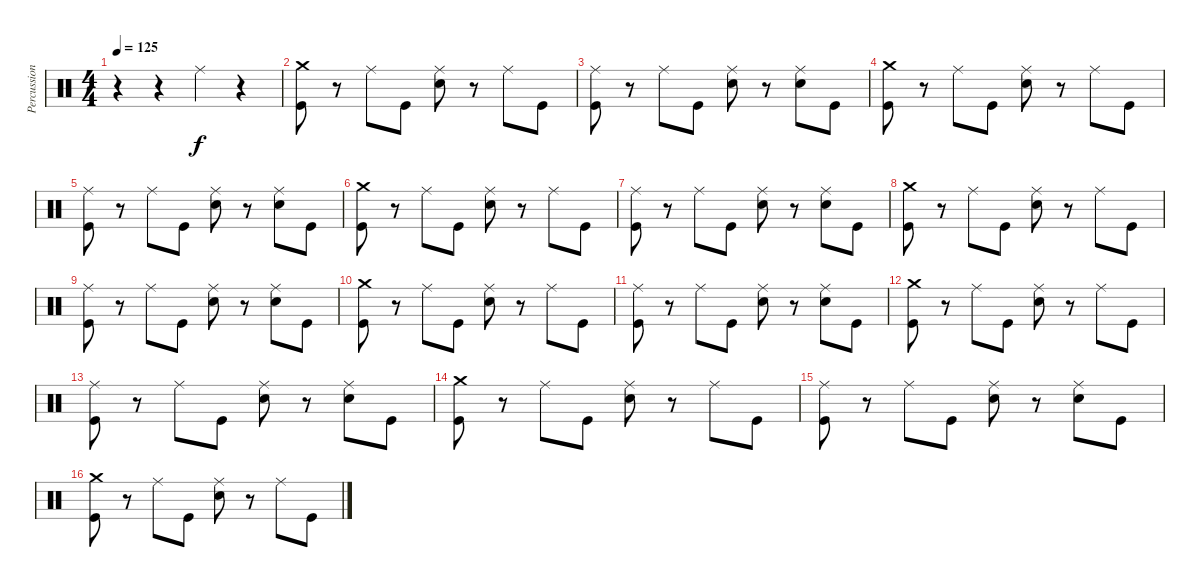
\track ("Percussion" "Percussion") {instrument percussion}
\staff {score}
\articulation defaults
\ts (4 4)
\tempo 125
\clef neutral
\ks c
r.4{dy f} r.4 "Ride (middle)".4 r.4 |
("Crash medium (hit)" "Kick (hit)").8 r.8 "Ride (middle)".8 "Kick (hit)".8 ("Ride (middle)" "Snare (hit) 2").8 r.8 "Ride (middle)".8 "Kick (hit)".8 |
("Ride (middle)" "Kick (hit)").8 r.8 "Ride (middle)".8 "Kick (hit)".8 ("Ride (middle)" "Snare (hit) 2").8 r.8 ("Ride (middle)" "Snare (hit) 2").8 "Kick (hit)".8 |
("Crash medium (hit)" "Kick (hit)").8 r.8 "Ride (middle)".8 "Kick (hit)".8 ("Ride (middle)" "Snare (hit) 2").8 r.8 "Ride (middle)".8 "Kick (hit)".8 |
("Ride (middle)" "Kick (hit)").8 r.8 "Ride (middle)".8 "Kick (hit)".8 ("Ride (middle)" "Snare (hit) 2").8 r.8 ("Ride (middle)" "Snare (hit) 2").8 "Kick (hit)".8 |
("Crash medium (hit)" "Kick (hit)").8 r.8 "Ride (middle)".8 "Kick (hit)".8 ("Ride (middle)" "Snare (hit) 2").8 r.8 "Ride (middle)".8 "Kick (hit)".8 |
("Ride (middle)" "Kick (hit)").8 r.8 "Ride (middle)".8 "Kick (hit)".8 ("Ride (middle)" "Snare (hit) 2").8 r.8 ("Ride (middle)" "Snare (hit) 2").8 "Kick (hit)".8 |
("Crash medium (hit)" "Kick (hit)").8 r.8 "Ride (middle)".8 "Kick (hit)".8 ("Ride (middle)" "Snare (hit) 2").8 r.8 "Ride (middle)".8 "Kick (hit)".8 |
("Ride (middle)" "Kick (hit)").8 r.8 "Ride (middle)".8 "Kick (hit)".8 ("Ride (middle)" "Snare (hit) 2").8 r.8 ("Ride (middle)" "Snare (hit) 2").8 "Kick (hit)".8 |
("Crash medium (hit)" "Kick (hit)").8 r.8 "Ride (middle)".8 "Kick (hit)".8 ("Ride (middle)" "Snare (hit) 2").8 r.8 "Ride (middle)".8 "Kick (hit)".8 |
("Ride (middle)" "Kick (hit)").8 r.8 "Ride (middle)".8 "Kick (hit)".8 ("Ride (middle)" "Snare (hit) 2").8 r.8 ("Ride (middle)" "Snare (hit) 2").8 "Kick (hit)".8 |
("Crash medium (hit)" "Kick (hit)").8 r.8 "Ride (middle)".8 "Kick (hit)".8 ("Ride (middle)" "Snare (hit) 2").8 r.8 "Ride (middle)".8 "Kick (hit)".8 |
("Ride (middle)" "Kick (hit)").8 r.8 "Ride (middle)".8 "Kick (hit)".8 ("Ride (middle)" "Snare (hit) 2").8 r.8 ("Ride (middle)" "Snare (hit) 2").8 "Kick (hit)".8 |
("Crash medium (hit)" "Kick (hit)").8 r.8 "Ride (middle)".8 "Kick (hit)".8 ("Ride (middle)" "Snare (hit) 2").8 r.8 "Ride (middle)".8 "Kick (hit)".8 |
("Ride (middle)" "Kick (hit)").8 r.8 "Ride (middle)".8 "Kick (hit)".8 ("Ride (middle)" "Snare (hit) 2").8 r.8 ("Ride (middle)" "Snare (hit) 2").8 "Kick (hit)".8 |
("Crash medium (hit)" "Kick (hit)").8 r.8 "Ride (middle)".8 "Kick (hit)".8 ("Ride (middle)" "Snare (hit) 2").8 r.8 "Ride (middle)".8 "Kick (hit)".8
